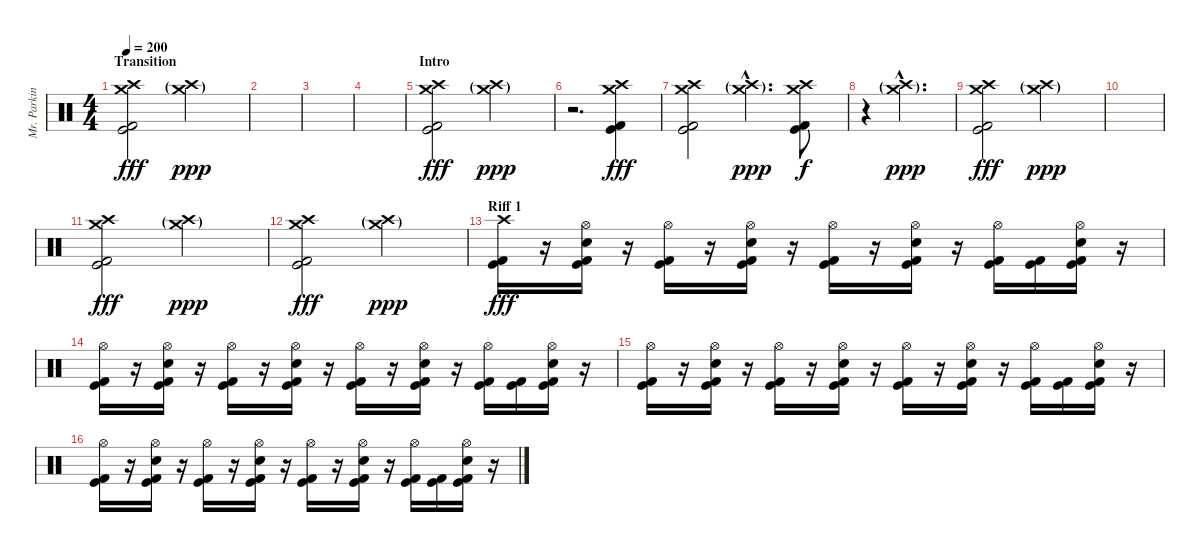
\track ("Mr. Parkinson" "Mr. Parkin") {instrument percussion}
\staff {score}
\articulation defaults
\ts (4 4)
\section ("" "Transition")
\tempo 200
\clef neutral
\ks c
("Crash high (hit)" "Crash medium (hit)" "Kick (hit)" "Kick (hit) 2").2{dy fff} ("Crash high (hit)"{g} "Crash medium (hit)"{g}).2{dy ppp} |
|
|
|
\section ("" "Intro")
("Crash high (hit)" "Crash medium (hit)" "Kick (hit)" "Kick (hit) 2").2{dy fff volume 16} ("Crash high (hit)"{g} "Crash medium (hit)"{g}).2{dy ppp} |
r.2{d} ("Crash high (hit)" "Crash medium (hit)" "Kick (hit)" "Kick (hit) 2").4{dy fff} |
("Crash high (hit)" "Crash medium (hit)" "Kick (hit)" "Kick (hit) 2").2 ("Crash high (hit)"{g hac} "Crash medium (hit)"{g hac}).4{d dy ppp} ("Crash high (hit)" "Crash medium (hit)" "Kick (hit) 2" "Kick (hit)").8{dy f} |
r.4 ("Crash high (hit)"{g hac} "Crash medium (hit)"{g hac}).2{d dy ppp} |
("Crash high (hit)" "Crash medium (hit)" "Kick (hit)" "Kick (hit) 2").2{dy fff} ("Crash high (hit)"{g} "Crash medium (hit)"{g}).2{dy ppp} |
|
("Crash high (hit)" "Crash medium (hit)" "Kick (hit)" "Kick (hit) 2").2{dy fff} ("Crash high (hit)"{g} "Crash medium (hit)"{g}).2{dy ppp} |
("Crash high (hit)" "Crash medium (hit)" "Kick (hit)" "Kick (hit) 2").2{dy fff} ("Crash high (hit)"{g} "Crash medium (hit)"{g}).2{dy ppp} |
\section ("" "Riff 1")
("Crash high (hit)" "Kick (hit)" "Kick (hit) 2").16{dy fff} r.16 ("Hi-Hat (open)" "Electric Snare (hit)" "Kick (hit)" "Kick (hit) 2").16 r.16 ("Hi-Hat (open)" "Kick (hit)" "Kick (hit) 2").16 r.16 ("Hi-Hat (open)" "Electric Snare (hit)" "Kick (hit)" "Kick (hit) 2").16 r.16 ("Hi-Hat (open)" "Kick (hit)" "Kick (hit) 2").16 r.16 ("Hi-Hat (open)" "Electric Snare (hit)" "Kick (hit)" "Kick (hit) 2").16 r.16 ("Hi-Hat (open)" "Kick (hit)" "Kick (hit) 2").16 ("Kick (hit)" "Kick (hit) 2").16 ("Hi-Hat (open)" "Electric Snare (hit)" "Kick (hit)" "Kick (hit) 2").16 r.16 |
("Hi-Hat (open)" "Kick (hit)" "Kick (hit) 2").16 r.16 ("Hi-Hat (open)" "Electric Snare (hit)" "Kick (hit)" "Kick (hit) 2").16 r.16 ("Hi-Hat (open)" "Kick (hit)" "Kick (hit) 2").16 r.16 ("Hi-Hat (open)" "Electric Snare (hit)" "Kick (hit)" "Kick (hit) 2").16 r.16 ("Hi-Hat (open)" "Kick (hit)" "Kick (hit) 2").16 r.16 ("Hi-Hat (open)" "Electric Snare (hit)" "Kick (hit)" "Kick (hit) 2").16 r.16 ("Hi-Hat (open)" "Kick (hit)" "Kick (hit) 2").16 ("Kick (hit)" "Kick (hit) 2").16 ("Hi-Hat (open)" "Electric Snare (hit)" "Kick (hit)" "Kick (hit) 2").16 r.16 |
("Hi-Hat (open)" "Kick (hit)" "Kick (hit) 2").16 r.16 ("Hi-Hat (open)" "Electric Snare (hit)" "Kick (hit)" "Kick (hit) 2").16 r.16 ("Hi-Hat (open)" "Kick (hit)" "Kick (hit) 2").16 r.16 ("Hi-Hat (open)" "Electric Snare (hit)" "Kick (hit)" "Kick (hit) 2").16 r.16 ("Hi-Hat (open)" "Kick (hit)" "Kick (hit) 2").16 r.16 ("Hi-Hat (open)" "Electric Snare (hit)" "Kick (hit)" "Kick (hit) 2").16 r.16 ("Hi-Hat (open)" "Kick (hit)" "Kick (hit) 2").16 ("Kick (hit)" "Kick (hit) 2").16 ("Hi-Hat (open)" "Electric Snare (hit)" "Kick (hit)" "Kick (hit) 2").16 r.16 |
("Hi-Hat (open)" "Kick (hit)" "Kick (hit) 2").16 r.16 ("Hi-Hat (open)" "Electric Snare (hit)" "Kick (hit)" "Kick (hit) 2").16 r.16 ("Hi-Hat (open)" "Kick (hit)" "Kick (hit) 2").16 r.16 ("Hi-Hat (open)" "Electric Snare (hit)" "Kick (hit)" "Kick (hit) 2").16 r.16 ("Hi-Hat (open)" "Kick (hit)" "Kick (hit) 2").16 r.16 ("Hi-Hat (open)" "Electric Snare (hit)" "Kick (hit)" "Kick (hit) 2").16 r.16 ("Hi-Hat (open)" "Kick (hit)" "Kick (hit) 2").16 ("Kick (hit)" "Kick (hit) 2").16 ("Hi-Hat (open)" "Electric Snare (hit)" "Kick (hit)" "Kick (hit) 2").16 r.16
